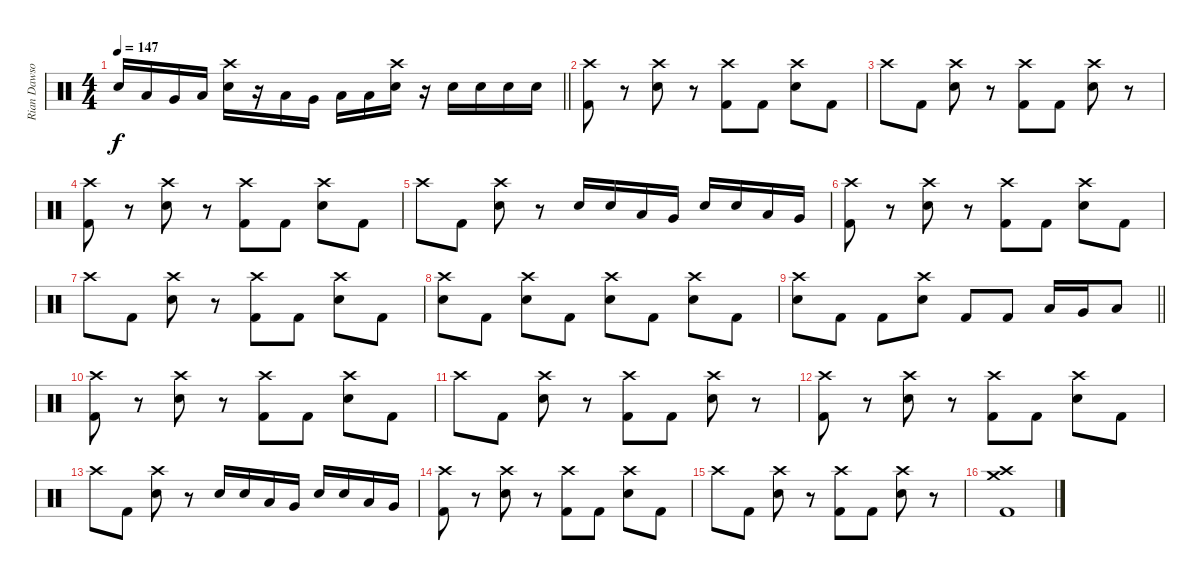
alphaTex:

\track ("Rian Dawson (Drums)" "Rian Dawso") {instrument percussion}
\staff {score}
\articulation defaults
\ts (4 4)
\tempo 147
\clef neutral
\barLineRight lightlight
\ks c "Electric Snare (hit)".16{dy f} "Low Tom (hit)".16 "Very Low Tom (hit)".16 "Low Floor Tom (hit)".16
("Crash high (hit)" "Electric Snare (hit)").16 r.16 "Low Tom (hit)".16 "Very Low Tom (hit)".16 "Low Floor Tom (hit)".16 "Low Floor Tom (hit)".16 ("Crash high (hit)" "Electric Snare (hit)").16 r.16 "Electric Snare (hit)".16 "Electric Snare (hit)".16 "Electric Snare (hit)".16 "Electric Snare (hit)".16 |
("Crash high (hit)" "Kick (hit) 2").8 r.8 ("Crash high (hit)" "Electric Snare (hit)").8 r.8 ("Crash high (hit)" "Kick (hit) 2").8 "Kick (hit) 2".8 ("Crash high (hit)" "Electric Snare (hit)").8 "Kick (hit) 2".8 |
"Crash high (hit)".8 "Kick (hit) 2".8 ("Crash high (hit)" "Electric Snare (hit)").8 r.8 ("Crash high (hit)" "Kick (hit) 2").8 "Kick (hit) 2".8 ("Crash high (hit)" "Electric Snare (hit)").8 r.8 |
("Crash high (hit)" "Kick (hit) 2").8 r.8 ("Crash high (hit)" "Electric Snare (hit)").8 r.8 ("Crash high (hit)" "Kick (hit) 2").8 "Kick (hit) 2".8 ("Crash high (hit)" "Electric Snare (hit)").8 "Kick (hit) 2".8 |
"Crash high (hit)".8 "Kick (hit) 2".8 ("Crash high (hit)" "Electric Snare (hit)").8 r.8 "Electric Snare (hit)".16 "Electric Snare (hit)".16 "Low Tom (hit)".16 "Very Low Tom (hit)".16 "Electric Snare (hit)".16 "Electric Snare (hit)".16 "Low Tom (hit)".16 "Very Low Tom (hit)".16 |
("Crash high (hit)" "Kick (hit) 2").8 r.8 ("Crash high (hit)" "Electric Snare (hit)").8 r.8 ("Crash high (hit)" "Kick (hit) 2").8 "Kick (hit) 2".8 ("Crash high (hit)" "Electric Snare (hit)").8 "Kick (hit) 2".8 |
"Crash high (hit)".8 "Kick (hit) 2".8 ("Crash high (hit)" "Electric Snare (hit)").8 r.8 ("Crash high (hit)" "Kick (hit) 2").8 "Kick (hit) 2".8 ("Crash high (hit)" "Electric Snare (hit)").8 "Kick (hit) 2".8 |
("Crash high (hit)" "Electric Snare (hit)").8 "Kick (hit) 2".8 ("Crash high (hit)" "Electric Snare (hit)").8 "Kick (hit) 2".8 ("Crash high (hit)" "Electric Snare (hit)").8 "Kick (hit) 2".8 ("Crash high (hit)" "Electric Snare (hit)").8 "Kick (hit) 2".8 |
\barLineRight lightlight
("Crash high (hit)" "Electric Snare (hit)").8 "Kick (hit) 2".8 "Kick (hit) 2".8 ("Crash high (hit)" "Electric Snare (hit)").8 "Kick (hit) 2".8 "Kick (hit) 2".8 "Low Tom (hit)".16 "Very Low Tom (hit)".16 "Low Floor Tom (hit)".8 |
\section ("" ".")
("Crash high (hit)" "Kick (hit) 2").8 r.8 ("Crash high (hit)" "Electric Snare (hit)").8 r.8 ("Crash high (hit)" "Kick (hit) 2").8 "Kick (hit) 2".8 ("Crash high (hit)" "Electric Snare (hit)").8 "Kick (hit) 2".8 |
"Crash high (hit)".8 "Kick (hit) 2".8 ("Crash high (hit)" "Electric Snare (hit)").8 r.8 ("Crash high (hit)" "Kick (hit) 2").8 "Kick (hit) 2".8 ("Crash high (hit)" "Electric Snare (hit)").8 r.8 |
("Crash high (hit)" "Kick (hit) 2").8 r.8 ("Crash high (hit)" "Electric Snare (hit)").8 r.8 ("Crash high (hit)" "Kick (hit) 2").8 "Kick (hit) 2".8 ("Crash high (hit)" "Electric Snare (hit)").8 "Kick (hit) 2".8 |
"Crash high (hit)".8 "Kick (hit) 2".8 ("Crash high (hit)" "Electric Snare (hit)").8 r.8 "Electric Snare (hit)".16 "Electric Snare (hit)".16 "Low Tom (hit)".16 "Very Low Tom (hit)".16 "Electric Snare (hit)".16 "Electric Snare (hit)".16 "Low Tom (hit)".16 "Very Low Tom (hit)".16 |
("Crash high (hit)" "Kick (hit) 2").8 r.8 ("Crash high (hit)" "Electric Snare (hit)").8 r.8 ("Crash high (hit)" "Kick (hit) 2").8 "Kick (hit) 2".8 ("Crash high (hit)" "Electric Snare (hit)").8 "Kick (hit) 2".8 |
"Crash high (hit)".8 "Kick (hit) 2".8 ("Crash high (hit)" "Electric Snare (hit)").8 r.8 ("Crash high (hit)" "Kick (hit) 2").8 "Kick (hit) 2".8 ("Crash high (hit)" "Electric Snare (hit)").8 r.8 |
("Crash medium (hit)" "Crash high (hit)" "Kick (hit) 2").1
